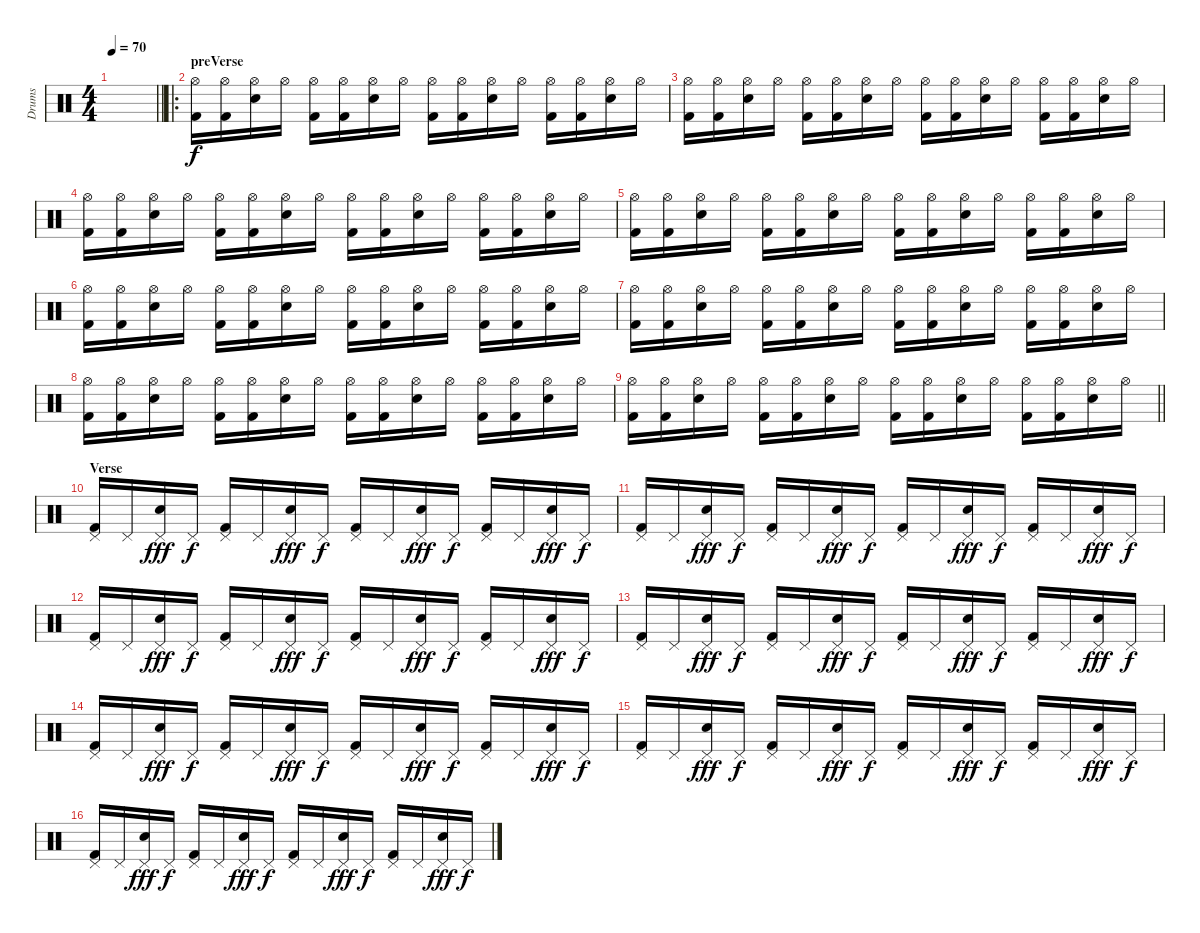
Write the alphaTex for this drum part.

\track ("Drums" "Drums") {instrument percussion}
\staff {score}
\articulation defaults
\ts (4 4)
\tempo 70
\clef neutral
\barLineRight lightlight
\ks c
|
\ro
\section ("" "preVerse")
("Kick (hit) 2" "Hi-Hat (open)").16 ("Kick (hit) 2" "Hi-Hat (open)").16 ("Electric Snare (hit)" "Hi-Hat (open)").16 "Hi-Hat (open)".16 ("Kick (hit) 2" "Hi-Hat (open)").16 ("Kick (hit) 2" "Hi-Hat (open)").16 ("Electric Snare (hit)" "Hi-Hat (open)").16 "Hi-Hat (open)".16 ("Kick (hit) 2" "Hi-Hat (open)").16 ("Kick (hit) 2" "Hi-Hat (open)").16 ("Electric Snare (hit)" "Hi-Hat (open)").16 "Hi-Hat (open)".16 ("Kick (hit) 2" "Hi-Hat (open)").16 ("Kick (hit) 2" "Hi-Hat (open)").16 ("Electric Snare (hit)" "Hi-Hat (open)").16 "Hi-Hat (open)".16 |
("Kick (hit) 2" "Hi-Hat (open)").16 ("Kick (hit) 2" "Hi-Hat (open)").16 ("Electric Snare (hit)" "Hi-Hat (open)").16 "Hi-Hat (open)".16 ("Kick (hit) 2" "Hi-Hat (open)").16 ("Kick (hit) 2" "Hi-Hat (open)").16 ("Electric Snare (hit)" "Hi-Hat (open)").16 "Hi-Hat (open)".16 ("Kick (hit) 2" "Hi-Hat (open)").16 ("Kick (hit) 2" "Hi-Hat (open)").16 ("Electric Snare (hit)" "Hi-Hat (open)").16 "Hi-Hat (open)".16 ("Kick (hit) 2" "Hi-Hat (open)").16 ("Kick (hit) 2" "Hi-Hat (open)").16 ("Electric Snare (hit)" "Hi-Hat (open)").16 "Hi-Hat (open)".16 |
("Kick (hit) 2" "Hi-Hat (open)").16 ("Kick (hit) 2" "Hi-Hat (open)").16 ("Electric Snare (hit)" "Hi-Hat (open)").16 "Hi-Hat (open)".16 ("Kick (hit) 2" "Hi-Hat (open)").16 ("Kick (hit) 2" "Hi-Hat (open)").16 ("Electric Snare (hit)" "Hi-Hat (open)").16 "Hi-Hat (open)".16 ("Kick (hit) 2" "Hi-Hat (open)").16 ("Kick (hit) 2" "Hi-Hat (open)").16 ("Electric Snare (hit)" "Hi-Hat (open)").16 "Hi-Hat (open)".16 ("Kick (hit) 2" "Hi-Hat (open)").16 ("Kick (hit) 2" "Hi-Hat (open)").16 ("Electric Snare (hit)" "Hi-Hat (open)").16 "Hi-Hat (open)".16 |
("Kick (hit) 2" "Hi-Hat (open)").16 ("Kick (hit) 2" "Hi-Hat (open)").16 ("Electric Snare (hit)" "Hi-Hat (open)").16 "Hi-Hat (open)".16 ("Kick (hit) 2" "Hi-Hat (open)").16 ("Kick (hit) 2" "Hi-Hat (open)").16 ("Electric Snare (hit)" "Hi-Hat (open)").16 "Hi-Hat (open)".16 ("Kick (hit) 2" "Hi-Hat (open)").16 ("Kick (hit) 2" "Hi-Hat (open)").16 ("Electric Snare (hit)" "Hi-Hat (open)").16 "Hi-Hat (open)".16 ("Kick (hit) 2" "Hi-Hat (open)").16 ("Kick (hit) 2" "Hi-Hat (open)").16 ("Electric Snare (hit)" "Hi-Hat (open)").16 "Hi-Hat (open)".16 |
("Kick (hit) 2" "Hi-Hat (open)").16 ("Kick (hit) 2" "Hi-Hat (open)").16 ("Electric Snare (hit)" "Hi-Hat (open)").16 "Hi-Hat (open)".16 ("Kick (hit) 2" "Hi-Hat (open)").16 ("Kick (hit) 2" "Hi-Hat (open)").16 ("Electric Snare (hit)" "Hi-Hat (open)").16 "Hi-Hat (open)".16 ("Kick (hit) 2" "Hi-Hat (open)").16 ("Kick (hit) 2" "Hi-Hat (open)").16 ("Electric Snare (hit)" "Hi-Hat (open)").16 "Hi-Hat (open)".16 ("Kick (hit) 2" "Hi-Hat (open)").16 ("Kick (hit) 2" "Hi-Hat (open)").16 ("Electric Snare (hit)" "Hi-Hat (open)").16 "Hi-Hat (open)".16 |
("Kick (hit) 2" "Hi-Hat (open)").16 ("Kick (hit) 2" "Hi-Hat (open)").16 ("Electric Snare (hit)" "Hi-Hat (open)").16 "Hi-Hat (open)".16 ("Kick (hit) 2" "Hi-Hat (open)").16 ("Kick (hit) 2" "Hi-Hat (open)").16 ("Electric Snare (hit)" "Hi-Hat (open)").16 "Hi-Hat (open)".16 ("Kick (hit) 2" "Hi-Hat (open)").16 ("Kick (hit) 2" "Hi-Hat (open)").16 ("Electric Snare (hit)" "Hi-Hat (open)").16 "Hi-Hat (open)".16 ("Kick (hit) 2" "Hi-Hat (open)").16 ("Kick (hit) 2" "Hi-Hat (open)").16 ("Electric Snare (hit)" "Hi-Hat (open)").16 "Hi-Hat (open)".16 |
("Kick (hit) 2" "Hi-Hat (open)").16 ("Kick (hit) 2" "Hi-Hat (open)").16 ("Electric Snare (hit)" "Hi-Hat (open)").16 "Hi-Hat (open)".16 ("Kick (hit) 2" "Hi-Hat (open)").16 ("Kick (hit) 2" "Hi-Hat (open)").16 ("Electric Snare (hit)" "Hi-Hat (open)").16 "Hi-Hat (open)".16 ("Kick (hit) 2" "Hi-Hat (open)").16 ("Kick (hit) 2" "Hi-Hat (open)").16 ("Electric Snare (hit)" "Hi-Hat (open)").16 "Hi-Hat (open)".16 ("Kick (hit) 2" "Hi-Hat (open)").16 ("Kick (hit) 2" "Hi-Hat (open)").16 ("Electric Snare (hit)" "Hi-Hat (open)").16 "Hi-Hat (open)".16 |
\barLineRight lightlight
("Kick (hit) 2" "Hi-Hat (open)").16 ("Kick (hit) 2" "Hi-Hat (open)").16 ("Electric Snare (hit)" "Hi-Hat (open)").16 "Hi-Hat (open)".16 ("Kick (hit) 2" "Hi-Hat (open)").16 ("Kick (hit) 2" "Hi-Hat (open)").16 ("Electric Snare (hit)" "Hi-Hat (open)").16 "Hi-Hat (open)".16 ("Kick (hit) 2" "Hi-Hat (open)").16 ("Kick (hit) 2" "Hi-Hat (open)").16 ("Electric Snare (hit)" "Hi-Hat (open)").16 "Hi-Hat (open)".16 ("Kick (hit) 2" "Hi-Hat (open)").16 ("Kick (hit) 2" "Hi-Hat (open)").16 ("Electric Snare (hit)" "Hi-Hat (open)").16 "Hi-Hat (open)".16 |
\section ("" "Verse")
("Kick (hit) 2" "Pedal Hi-Hat (hit)").16{dy f} "Pedal Hi-Hat (hit)".16 ("Electric Snare (hit)" "Pedal Hi-Hat (hit)").16{dy fff} "Pedal Hi-Hat (hit)".16{dy f} ("Kick (hit) 2" "Pedal Hi-Hat (hit)").16 "Pedal Hi-Hat (hit)".16 ("Electric Snare (hit)" "Pedal Hi-Hat (hit)").16{dy fff} "Pedal Hi-Hat (hit)".16{dy f} ("Kick (hit) 2" "Pedal Hi-Hat (hit)").16 "Pedal Hi-Hat (hit)".16 ("Electric Snare (hit)" "Pedal Hi-Hat (hit)").16{dy fff} "Pedal Hi-Hat (hit)".16{dy f} ("Kick (hit) 2" "Pedal Hi-Hat (hit)").16 "Pedal Hi-Hat (hit)".16 ("Electric Snare (hit)" "Pedal Hi-Hat (hit)").16{dy fff} "Pedal Hi-Hat (hit)".16{dy f} |
("Kick (hit) 2" "Pedal Hi-Hat (hit)").16 "Pedal Hi-Hat (hit)".16 ("Electric Snare (hit)" "Pedal Hi-Hat (hit)").16{dy fff} "Pedal Hi-Hat (hit)".16{dy f} ("Kick (hit) 2" "Pedal Hi-Hat (hit)").16 "Pedal Hi-Hat (hit)".16 ("Electric Snare (hit)" "Pedal Hi-Hat (hit)").16{dy fff} "Pedal Hi-Hat (hit)".16{dy f} ("Kick (hit) 2" "Pedal Hi-Hat (hit)").16 "Pedal Hi-Hat (hit)".16 ("Electric Snare (hit)" "Pedal Hi-Hat (hit)").16{dy fff} "Pedal Hi-Hat (hit)".16{dy f} ("Kick (hit) 2" "Pedal Hi-Hat (hit)").16 "Pedal Hi-Hat (hit)".16 ("Electric Snare (hit)" "Pedal Hi-Hat (hit)").16{dy fff} "Pedal Hi-Hat (hit)".16{dy f} |
("Kick (hit) 2" "Pedal Hi-Hat (hit)").16 "Pedal Hi-Hat (hit)".16 ("Electric Snare (hit)" "Pedal Hi-Hat (hit)").16{dy fff} "Pedal Hi-Hat (hit)".16{dy f} ("Kick (hit) 2" "Pedal Hi-Hat (hit)").16 "Pedal Hi-Hat (hit)".16 ("Electric Snare (hit)" "Pedal Hi-Hat (hit)").16{dy fff} "Pedal Hi-Hat (hit)".16{dy f} ("Kick (hit) 2" "Pedal Hi-Hat (hit)").16 "Pedal Hi-Hat (hit)".16 ("Electric Snare (hit)" "Pedal Hi-Hat (hit)").16{dy fff} "Pedal Hi-Hat (hit)".16{dy f} ("Kick (hit) 2" "Pedal Hi-Hat (hit)").16 "Pedal Hi-Hat (hit)".16 ("Electric Snare (hit)" "Pedal Hi-Hat (hit)").16{dy fff} "Pedal Hi-Hat (hit)".16{dy f} |
("Kick (hit) 2" "Pedal Hi-Hat (hit)").16 "Pedal Hi-Hat (hit)".16 ("Electric Snare (hit)" "Pedal Hi-Hat (hit)").16{dy fff} "Pedal Hi-Hat (hit)".16{dy f} ("Kick (hit) 2" "Pedal Hi-Hat (hit)").16 "Pedal Hi-Hat (hit)".16 ("Electric Snare (hit)" "Pedal Hi-Hat (hit)").16{dy fff} "Pedal Hi-Hat (hit)".16{dy f} ("Kick (hit) 2" "Pedal Hi-Hat (hit)").16 "Pedal Hi-Hat (hit)".16 ("Electric Snare (hit)" "Pedal Hi-Hat (hit)").16{dy fff} "Pedal Hi-Hat (hit)".16{dy f} ("Kick (hit) 2" "Pedal Hi-Hat (hit)").16 "Pedal Hi-Hat (hit)".16 ("Electric Snare (hit)" "Pedal Hi-Hat (hit)").16{dy fff} "Pedal Hi-Hat (hit)".16{dy f} |
("Kick (hit) 2" "Pedal Hi-Hat (hit)").16 "Pedal Hi-Hat (hit)".16 ("Electric Snare (hit)" "Pedal Hi-Hat (hit)").16{dy fff} "Pedal Hi-Hat (hit)".16{dy f} ("Kick (hit) 2" "Pedal Hi-Hat (hit)").16 "Pedal Hi-Hat (hit)".16 ("Electric Snare (hit)" "Pedal Hi-Hat (hit)").16{dy fff} "Pedal Hi-Hat (hit)".16{dy f} ("Kick (hit) 2" "Pedal Hi-Hat (hit)").16 "Pedal Hi-Hat (hit)".16 ("Electric Snare (hit)" "Pedal Hi-Hat (hit)").16{dy fff} "Pedal Hi-Hat (hit)".16{dy f} ("Kick (hit) 2" "Pedal Hi-Hat (hit)").16 "Pedal Hi-Hat (hit)".16 ("Electric Snare (hit)" "Pedal Hi-Hat (hit)").16{dy fff} "Pedal Hi-Hat (hit)".16{dy f} |
("Kick (hit) 2" "Pedal Hi-Hat (hit)").16 "Pedal Hi-Hat (hit)".16 ("Electric Snare (hit)" "Pedal Hi-Hat (hit)").16{dy fff} "Pedal Hi-Hat (hit)".16{dy f} ("Kick (hit) 2" "Pedal Hi-Hat (hit)").16 "Pedal Hi-Hat (hit)".16 ("Electric Snare (hit)" "Pedal Hi-Hat (hit)").16{dy fff} "Pedal Hi-Hat (hit)".16{dy f} ("Kick (hit) 2" "Pedal Hi-Hat (hit)").16 "Pedal Hi-Hat (hit)".16 ("Electric Snare (hit)" "Pedal Hi-Hat (hit)").16{dy fff} "Pedal Hi-Hat (hit)".16{dy f} ("Kick (hit) 2" "Pedal Hi-Hat (hit)").16 "Pedal Hi-Hat (hit)".16 ("Electric Snare (hit)" "Pedal Hi-Hat (hit)").16{dy fff} "Pedal Hi-Hat (hit)".16{dy f} |
("Kick (hit) 2" "Pedal Hi-Hat (hit)").16 "Pedal Hi-Hat (hit)".16 ("Electric Snare (hit)" "Pedal Hi-Hat (hit)").16{dy fff} "Pedal Hi-Hat (hit)".16{dy f} ("Kick (hit) 2" "Pedal Hi-Hat (hit)").16 "Pedal Hi-Hat (hit)".16 ("Electric Snare (hit)" "Pedal Hi-Hat (hit)").16{dy fff} "Pedal Hi-Hat (hit)".16{dy f} ("Kick (hit) 2" "Pedal Hi-Hat (hit)").16 "Pedal Hi-Hat (hit)".16 ("Electric Snare (hit)" "Pedal Hi-Hat (hit)").16{dy fff} "Pedal Hi-Hat (hit)".16{dy f} ("Kick (hit) 2" "Pedal Hi-Hat (hit)").16 "Pedal Hi-Hat (hit)".16 ("Electric Snare (hit)" "Pedal Hi-Hat (hit)").16{dy fff} "Pedal Hi-Hat (hit)".16{dy f}
